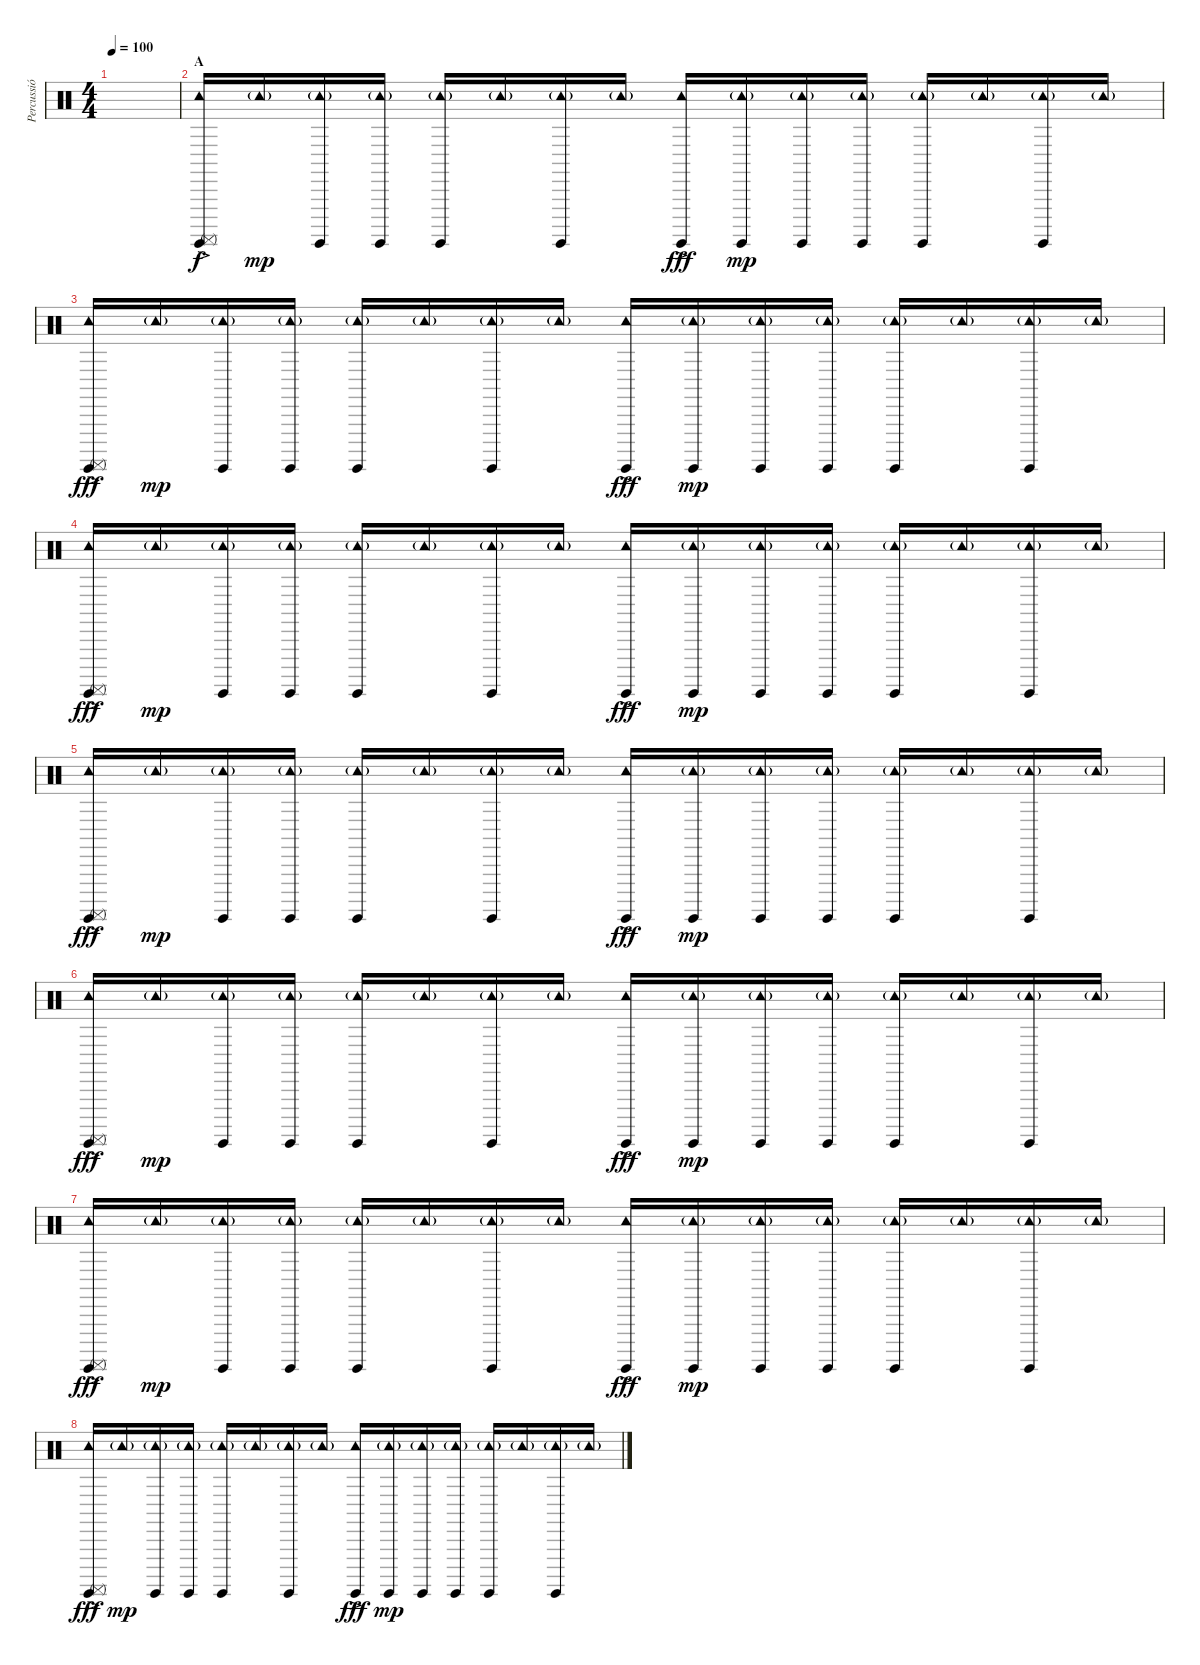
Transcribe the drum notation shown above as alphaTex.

\track ("Percussió" "Percussió") {instrument percussion}
\staff {score}
\articulation defaults
\ts (4 4)
\tempo 100
\clef neutral
\ks c
|
\section ("" "A")
("Tambourine (hit)"{ac} "Surdo (hit)" "Surdo (mute)"{ac}).16 "Tambourine (hit)"{g}.16{dy mp} ("Tambourine (hit)"{g} "Surdo (hit)").16 ("Tambourine (hit)"{g} "Surdo (hit)").16 ("Tambourine (hit)"{g} "Surdo (hit)").16 "Tambourine (hit)"{g}.16 ("Tambourine (hit)"{g} "Surdo (hit)").16 "Tambourine (hit)"{g}.16 ("Tambourine (hit)"{ac} "Surdo (hit)"{ac}).16{dy fff} ("Tambourine (hit)"{g} "Surdo (hit)").16{dy mp} ("Tambourine (hit)"{g} "Surdo (hit)").16 ("Tambourine (hit)"{g} "Surdo (hit)").16 ("Tambourine (hit)"{g} "Surdo (hit)").16 "Tambourine (hit)"{g}.16 ("Tambourine (hit)"{g} "Surdo (hit)").16 "Tambourine (hit)"{g}.16 |
("Tambourine (hit)"{ac} "Surdo (hit)" "Surdo (mute)"{ac}).16{dy fff} "Tambourine (hit)"{g}.16{dy mp} ("Tambourine (hit)"{g} "Surdo (hit)").16 ("Tambourine (hit)"{g} "Surdo (hit)").16 ("Tambourine (hit)"{g} "Surdo (hit)").16 "Tambourine (hit)"{g}.16 ("Tambourine (hit)"{g} "Surdo (hit)").16 "Tambourine (hit)"{g}.16 ("Tambourine (hit)"{ac} "Surdo (hit)"{ac}).16{dy fff} ("Tambourine (hit)"{g} "Surdo (hit)").16{dy mp} ("Tambourine (hit)"{g} "Surdo (hit)").16 ("Tambourine (hit)"{g} "Surdo (hit)").16 ("Tambourine (hit)"{g} "Surdo (hit)").16 "Tambourine (hit)"{g}.16 ("Tambourine (hit)"{g} "Surdo (hit)").16 "Tambourine (hit)"{g}.16 |
("Tambourine (hit)"{ac} "Surdo (hit)" "Surdo (mute)"{ac}).16{dy fff} "Tambourine (hit)"{g}.16{dy mp} ("Tambourine (hit)"{g} "Surdo (hit)").16 ("Tambourine (hit)"{g} "Surdo (hit)").16 ("Tambourine (hit)"{g} "Surdo (hit)").16 "Tambourine (hit)"{g}.16 ("Tambourine (hit)"{g} "Surdo (hit)").16 "Tambourine (hit)"{g}.16 ("Tambourine (hit)"{ac} "Surdo (hit)"{ac}).16{dy fff} ("Tambourine (hit)"{g} "Surdo (hit)").16{dy mp} ("Tambourine (hit)"{g} "Surdo (hit)").16 ("Tambourine (hit)"{g} "Surdo (hit)").16 ("Tambourine (hit)"{g} "Surdo (hit)").16 "Tambourine (hit)"{g}.16 ("Tambourine (hit)"{g} "Surdo (hit)").16 "Tambourine (hit)"{g}.16 |
("Tambourine (hit)"{ac} "Surdo (hit)" "Surdo (mute)"{ac}).16{dy fff} "Tambourine (hit)"{g}.16{dy mp} ("Tambourine (hit)"{g} "Surdo (hit)").16 ("Tambourine (hit)"{g} "Surdo (hit)").16 ("Tambourine (hit)"{g} "Surdo (hit)").16 "Tambourine (hit)"{g}.16 ("Tambourine (hit)"{g} "Surdo (hit)").16 "Tambourine (hit)"{g}.16 ("Tambourine (hit)"{ac} "Surdo (hit)"{ac}).16{dy fff} ("Tambourine (hit)"{g} "Surdo (hit)").16{dy mp} ("Tambourine (hit)"{g} "Surdo (hit)").16 ("Tambourine (hit)"{g} "Surdo (hit)").16 ("Tambourine (hit)"{g} "Surdo (hit)").16 "Tambourine (hit)"{g}.16 ("Tambourine (hit)"{g} "Surdo (hit)").16 "Tambourine (hit)"{g}.16 |
("Tambourine (hit)"{ac} "Surdo (hit)" "Surdo (mute)"{ac}).16{dy fff} "Tambourine (hit)"{g}.16{dy mp} ("Tambourine (hit)"{g} "Surdo (hit)").16 ("Tambourine (hit)"{g} "Surdo (hit)").16 ("Tambourine (hit)"{g} "Surdo (hit)").16 "Tambourine (hit)"{g}.16 ("Tambourine (hit)"{g} "Surdo (hit)").16 "Tambourine (hit)"{g}.16 ("Tambourine (hit)"{ac} "Surdo (hit)"{ac}).16{dy fff} ("Tambourine (hit)"{g} "Surdo (hit)").16{dy mp} ("Tambourine (hit)"{g} "Surdo (hit)").16 ("Tambourine (hit)"{g} "Surdo (hit)").16 ("Tambourine (hit)"{g} "Surdo (hit)").16 "Tambourine (hit)"{g}.16 ("Tambourine (hit)"{g} "Surdo (hit)").16 "Tambourine (hit)"{g}.16 |
("Tambourine (hit)"{ac} "Surdo (hit)" "Surdo (mute)"{ac}).16{dy fff} "Tambourine (hit)"{g}.16{dy mp} ("Tambourine (hit)"{g} "Surdo (hit)").16 ("Tambourine (hit)"{g} "Surdo (hit)").16 ("Tambourine (hit)"{g} "Surdo (hit)").16 "Tambourine (hit)"{g}.16 ("Tambourine (hit)"{g} "Surdo (hit)").16 "Tambourine (hit)"{g}.16 ("Tambourine (hit)"{ac} "Surdo (hit)"{ac}).16{dy fff} ("Tambourine (hit)"{g} "Surdo (hit)").16{dy mp} ("Tambourine (hit)"{g} "Surdo (hit)").16 ("Tambourine (hit)"{g} "Surdo (hit)").16 ("Tambourine (hit)"{g} "Surdo (hit)").16 "Tambourine (hit)"{g}.16 ("Tambourine (hit)"{g} "Surdo (hit)").16 "Tambourine (hit)"{g}.16 |
("Tambourine (hit)"{ac} "Surdo (hit)" "Surdo (mute)"{ac}).16{dy fff} "Tambourine (hit)"{g}.16{dy mp} ("Tambourine (hit)"{g} "Surdo (hit)").16 ("Tambourine (hit)"{g} "Surdo (hit)").16 ("Tambourine (hit)"{g} "Surdo (hit)").16 "Tambourine (hit)"{g}.16 ("Tambourine (hit)"{g} "Surdo (hit)").16 "Tambourine (hit)"{g}.16 ("Tambourine (hit)"{ac} "Surdo (hit)"{ac}).16{dy fff} ("Tambourine (hit)"{g} "Surdo (hit)").16{dy mp} ("Tambourine (hit)"{g} "Surdo (hit)").16 ("Tambourine (hit)"{g} "Surdo (hit)").16 ("Tambourine (hit)"{g} "Surdo (hit)").16 "Tambourine (hit)"{g}.16 ("Tambourine (hit)"{g} "Surdo (hit)").16 "Tambourine (hit)"{g}.16
